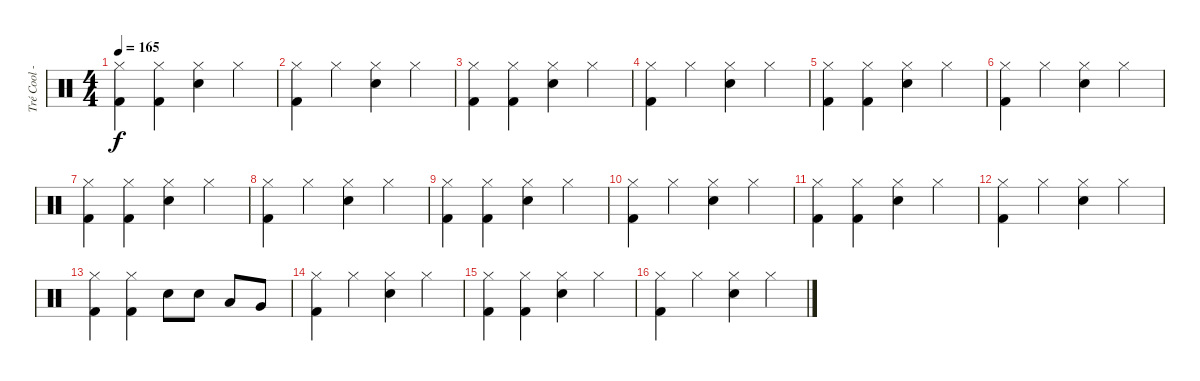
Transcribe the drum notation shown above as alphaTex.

\track ("Tré Cool - Drums" "Tré Cool -") {instrument percussion}
\staff {score}
\articulation defaults
\ts (4 4)
\tempo 165
\clef neutral
\ks c
("Hi-Hat (closed)" "Kick (hit) 2").4{dy f} ("Hi-Hat (closed)" "Kick (hit) 2").4 ("Hi-Hat (closed)" "Electric Snare (hit)").4 "Hi-Hat (closed)".4 |
("Hi-Hat (closed)" "Kick (hit) 2").4 "Hi-Hat (closed)".4 ("Hi-Hat (closed)" "Electric Snare (hit)").4 "Hi-Hat (closed)".4 |
("Hi-Hat (closed)" "Kick (hit) 2").4 ("Hi-Hat (closed)" "Kick (hit) 2").4 ("Hi-Hat (closed)" "Electric Snare (hit)").4 "Hi-Hat (closed)".4 |
("Hi-Hat (closed)" "Kick (hit) 2").4 "Hi-Hat (closed)".4 ("Hi-Hat (closed)" "Electric Snare (hit)").4 "Hi-Hat (closed)".4 |
("Hi-Hat (closed)" "Kick (hit) 2").4 ("Hi-Hat (closed)" "Kick (hit) 2").4 ("Hi-Hat (closed)" "Electric Snare (hit)").4 "Hi-Hat (closed)".4 |
("Hi-Hat (closed)" "Kick (hit) 2").4 "Hi-Hat (closed)".4 ("Hi-Hat (closed)" "Electric Snare (hit)").4 "Hi-Hat (closed)".4 |
("Hi-Hat (closed)" "Kick (hit) 2").4 ("Hi-Hat (closed)" "Kick (hit) 2").4 ("Hi-Hat (closed)" "Electric Snare (hit)").4 "Hi-Hat (closed)".4 |
("Hi-Hat (closed)" "Kick (hit) 2").4 "Hi-Hat (closed)".4 ("Hi-Hat (closed)" "Electric Snare (hit)").4 "Hi-Hat (closed)".4 |
("Hi-Hat (closed)" "Kick (hit) 2").4 ("Hi-Hat (closed)" "Kick (hit) 2").4 ("Hi-Hat (closed)" "Electric Snare (hit)").4 "Hi-Hat (closed)".4 |
("Hi-Hat (closed)" "Kick (hit) 2").4 "Hi-Hat (closed)".4 ("Hi-Hat (closed)" "Electric Snare (hit)").4 "Hi-Hat (closed)".4 |
("Hi-Hat (closed)" "Kick (hit) 2").4 ("Hi-Hat (closed)" "Kick (hit) 2").4 ("Hi-Hat (closed)" "Electric Snare (hit)").4 "Hi-Hat (closed)".4 |
("Hi-Hat (closed)" "Kick (hit) 2").4 "Hi-Hat (closed)".4 ("Hi-Hat (closed)" "Electric Snare (hit)").4 "Hi-Hat (closed)".4 |
("Hi-Hat (closed)" "Kick (hit) 2").4 ("Hi-Hat (closed)" "Kick (hit) 2").4 "Electric Snare (hit)".8 "Electric Snare (hit)".8 "Low Tom (hit)".8 "Very Low Tom (hit)".8 |
("Hi-Hat (closed)" "Kick (hit) 2").4 "Hi-Hat (closed)".4 ("Hi-Hat (closed)" "Electric Snare (hit)").4 "Hi-Hat (closed)".4 |
("Hi-Hat (closed)" "Kick (hit) 2").4 ("Hi-Hat (closed)" "Kick (hit) 2").4 ("Hi-Hat (closed)" "Electric Snare (hit)").4 "Hi-Hat (closed)".4 |
("Hi-Hat (closed)" "Kick (hit) 2").4 "Hi-Hat (closed)".4 ("Hi-Hat (closed)" "Electric Snare (hit)").4 "Hi-Hat (closed)".4
